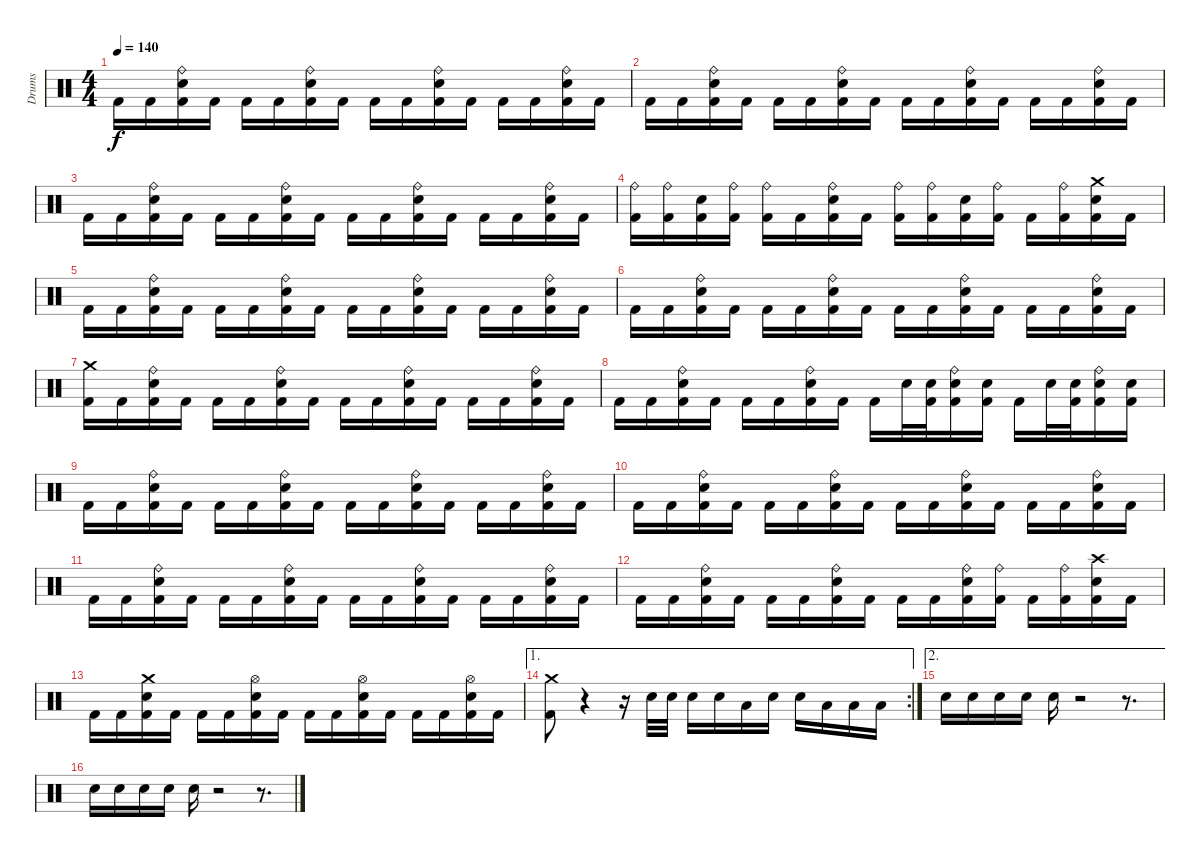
\track ("Drums" "Drums") {instrument percussion}
\staff {score}
\articulation defaults
\ts (4 4)
\tempo 140
\clef neutral
\ks c "Kick (hit) 2".16{dy f} "Kick (hit) 2".16
("Electric Snare (hit)" "Ride (bell)" "Kick (hit) 2").16 "Kick (hit) 2".16 "Kick (hit) 2".16 "Kick (hit) 2".16 ("Electric Snare (hit)" "Ride (bell)" "Kick (hit) 2").16 "Kick (hit) 2".16 "Kick (hit) 2".16 "Kick (hit) 2".16 ("Electric Snare (hit)" "Ride (bell)" "Kick (hit) 2").16 "Kick (hit) 2".16 "Kick (hit) 2".16 "Kick (hit) 2".16 ("Electric Snare (hit)" "Ride (bell)" "Kick (hit) 2").16 "Kick (hit) 2".16 |
"Kick (hit) 2".16 "Kick (hit) 2".16 ("Electric Snare (hit)" "Ride (bell)" "Kick (hit) 2").16 "Kick (hit) 2".16 "Kick (hit) 2".16 "Kick (hit) 2".16 ("Electric Snare (hit)" "Ride (bell)" "Kick (hit) 2").16 "Kick (hit) 2".16 "Kick (hit) 2".16 "Kick (hit) 2".16 ("Electric Snare (hit)" "Ride (bell)" "Kick (hit) 2").16 "Kick (hit) 2".16 "Kick (hit) 2".16 "Kick (hit) 2".16 ("Electric Snare (hit)" "Ride (bell)" "Kick (hit) 2").16 "Kick (hit) 2".16 |
"Kick (hit) 2".16 "Kick (hit) 2".16 ("Electric Snare (hit)" "Ride (bell)" "Kick (hit) 2").16 "Kick (hit) 2".16 "Kick (hit) 2".16 "Kick (hit) 2".16 ("Electric Snare (hit)" "Ride (bell)" "Kick (hit) 2").16 "Kick (hit) 2".16 "Kick (hit) 2".16 "Kick (hit) 2".16 ("Electric Snare (hit)" "Ride (bell)" "Kick (hit) 2").16 "Kick (hit) 2".16 "Kick (hit) 2".16 "Kick (hit) 2".16 ("Electric Snare (hit)" "Ride (bell)" "Kick (hit) 2").16 "Kick (hit) 2".16 |
("Ride (bell)" "Kick (hit) 2").16 ("Ride (bell)" "Kick (hit) 2").16 ("Electric Snare (hit)" "Kick (hit) 2").16 ("Ride (bell)" "Kick (hit) 2").16 ("Ride (bell)" "Kick (hit) 2").16 "Kick (hit) 2".16 ("Electric Snare (hit)" "Ride (bell)" "Kick (hit) 2").16 "Kick (hit) 2".16 ("Ride (bell)" "Kick (hit) 2").16 ("Ride (bell)" "Kick (hit) 2").16 ("Electric Snare (hit)" "Kick (hit) 2").16 ("Ride (bell)" "Kick (hit) 2").16 "Kick (hit) 2".16 ("Ride (bell)" "Kick (hit) 2").16 ("Crash medium (hit)" "Electric Snare (hit)" "Kick (hit) 2").16 "Kick (hit) 2".16 |
"Kick (hit) 2".16 "Kick (hit) 2".16 ("Electric Snare (hit)" "Ride (bell)" "Kick (hit) 2").16 "Kick (hit) 2".16 "Kick (hit) 2".16 "Kick (hit) 2".16 ("Electric Snare (hit)" "Ride (bell)" "Kick (hit) 2").16 "Kick (hit) 2".16 "Kick (hit) 2".16 "Kick (hit) 2".16 ("Electric Snare (hit)" "Ride (bell)" "Kick (hit) 2").16 "Kick (hit) 2".16 "Kick (hit) 2".16 "Kick (hit) 2".16 ("Electric Snare (hit)" "Ride (bell)" "Kick (hit) 2").16 "Kick (hit) 2".16 |
"Kick (hit) 2".16 "Kick (hit) 2".16 ("Electric Snare (hit)" "Ride (bell)" "Kick (hit) 2").16 "Kick (hit) 2".16 "Kick (hit) 2".16 "Kick (hit) 2".16 ("Electric Snare (hit)" "Ride (bell)" "Kick (hit) 2").16 "Kick (hit) 2".16 "Kick (hit) 2".16 "Kick (hit) 2".16 ("Electric Snare (hit)" "Ride (bell)" "Kick (hit) 2").16 "Kick (hit) 2".16 "Kick (hit) 2".16 "Kick (hit) 2".16 ("Electric Snare (hit)" "Ride (bell)" "Kick (hit) 2").16 "Kick (hit) 2".16 |
("Crash medium (hit)" "Kick (hit) 2").16 "Kick (hit) 2".16 ("Electric Snare (hit)" "Ride (bell)" "Kick (hit) 2").16 "Kick (hit) 2".16 "Kick (hit) 2".16 "Kick (hit) 2".16 ("Electric Snare (hit)" "Ride (bell)" "Kick (hit) 2").16 "Kick (hit) 2".16 "Kick (hit) 2".16 "Kick (hit) 2".16 ("Electric Snare (hit)" "Ride (bell)" "Kick (hit) 2").16 "Kick (hit) 2".16 "Kick (hit) 2".16 "Kick (hit) 2".16 ("Electric Snare (hit)" "Ride (bell)" "Kick (hit) 2").16 "Kick (hit) 2".16 |
"Kick (hit) 2".16 "Kick (hit) 2".16 ("Electric Snare (hit)" "Ride (bell)" "Kick (hit) 2").16 "Kick (hit) 2".16 "Kick (hit) 2".16 "Kick (hit) 2".16 ("Electric Snare (hit)" "Ride (bell)" "Kick (hit) 2").16 "Kick (hit) 2".16 "Kick (hit) 2".16 "Electric Snare (hit)".32 ("Electric Snare (hit)" "Kick (hit) 2").32 ("Electric Snare (hit)" "Ride (bell)" "Kick (hit) 2").16 ("Electric Snare (hit)" "Kick (hit) 2").16 "Kick (hit) 2".16 "Electric Snare (hit)".32 ("Electric Snare (hit)" "Kick (hit) 2").32 ("Electric Snare (hit)" "Ride (bell)" "Kick (hit) 2").16 ("Electric Snare (hit)" "Kick (hit) 2").16 |
"Kick (hit) 2".16 "Kick (hit) 2".16 ("Electric Snare (hit)" "Ride (bell)" "Kick (hit) 2").16 "Kick (hit) 2".16 "Kick (hit) 2".16 "Kick (hit) 2".16 ("Electric Snare (hit)" "Ride (bell)" "Kick (hit) 2").16 "Kick (hit) 2".16 "Kick (hit) 2".16 "Kick (hit) 2".16 ("Electric Snare (hit)" "Ride (bell)" "Kick (hit) 2").16 "Kick (hit) 2".16 "Kick (hit) 2".16 "Kick (hit) 2".16 ("Electric Snare (hit)" "Ride (bell)" "Kick (hit) 2").16 "Kick (hit) 2".16 |
"Kick (hit) 2".16 "Kick (hit) 2".16 ("Electric Snare (hit)" "Ride (bell)" "Kick (hit) 2").16 "Kick (hit) 2".16 "Kick (hit) 2".16 "Kick (hit) 2".16 ("Electric Snare (hit)" "Ride (bell)" "Kick (hit) 2").16 "Kick (hit) 2".16 "Kick (hit) 2".16 "Kick (hit) 2".16 ("Electric Snare (hit)" "Ride (bell)" "Kick (hit) 2").16 "Kick (hit) 2".16 "Kick (hit) 2".16 "Kick (hit) 2".16 ("Electric Snare (hit)" "Ride (bell)" "Kick (hit) 2").16 "Kick (hit) 2".16 |
"Kick (hit) 2".16 "Kick (hit) 2".16 ("Electric Snare (hit)" "Ride (bell)" "Kick (hit) 2").16 "Kick (hit) 2".16 "Kick (hit) 2".16 "Kick (hit) 2".16 ("Electric Snare (hit)" "Ride (bell)" "Kick (hit) 2").16 "Kick (hit) 2".16 "Kick (hit) 2".16 "Kick (hit) 2".16 ("Electric Snare (hit)" "Ride (bell)" "Kick (hit) 2").16 "Kick (hit) 2".16 "Kick (hit) 2".16 "Kick (hit) 2".16 ("Electric Snare (hit)" "Ride (bell)" "Kick (hit) 2").16 "Kick (hit) 2".16 |
"Kick (hit) 2".16 "Kick (hit) 2".16 ("Electric Snare (hit)" "Ride (bell)" "Kick (hit) 2").16 "Kick (hit) 2".16 "Kick (hit) 2".16 "Kick (hit) 2".16 ("Electric Snare (hit)" "Ride (bell)" "Kick (hit) 2").16 "Kick (hit) 2".16 "Kick (hit) 2".16 "Kick (hit) 2".16 ("Electric Snare (hit)" "Ride (bell)" "Kick (hit) 2").16 ("Ride (bell)" "Kick (hit) 2").16 "Kick (hit) 2".16 ("Ride (bell)" "Kick (hit) 2").16 ("Electric Snare (hit)" "Crash high (hit)" "Kick (hit) 2").16 "Kick (hit) 2".16 |
"Kick (hit) 2".16 "Kick (hit) 2".16 ("Electric Snare (hit)" "Crash medium (hit)" "Kick (hit) 2").16 "Kick (hit) 2".16 "Kick (hit) 2".16 "Kick (hit) 2".16 ("Electric Snare (hit)" "Hi-Hat (open)" "Kick (hit) 2").16 "Kick (hit) 2".16 "Kick (hit) 2".16 "Kick (hit) 2".16 ("Electric Snare (hit)" "Hi-Hat (open)" "Kick (hit) 2").16 "Kick (hit) 2".16 "Kick (hit) 2".16 "Kick (hit) 2".16 ("Electric Snare (hit)" "Hi-Hat (open)" "Kick (hit) 2").16 "Kick (hit) 2".16 |
\ae 1
\rc 2
("Crash medium (hit)" "Kick (hit) 2").8 r.4 r.16 "Electric Snare (hit)".32 "Electric Snare (hit)".32 "Electric Snare (hit)".16 "Electric Snare (hit)".16 "Low Tom (hit)".16 "Electric Snare (hit)".16 "Electric Snare (hit)".16 "Low Tom (hit)".16 "Low Tom (hit)".16 "Low Floor Tom (hit)".16 |
\ae 2 "Electric Snare (hit)".16 "Electric Snare (hit)".16 "Electric Snare (hit)".16 "Electric Snare (hit)".16 "Electric Snare (hit)".16
r.2 r.8{d} |
"Electric Snare (hit)".16 "Electric Snare (hit)".16 "Electric Snare (hit)".16 "Electric Snare (hit)".16 "Electric Snare (hit)".16 r.2 r.8{d}
